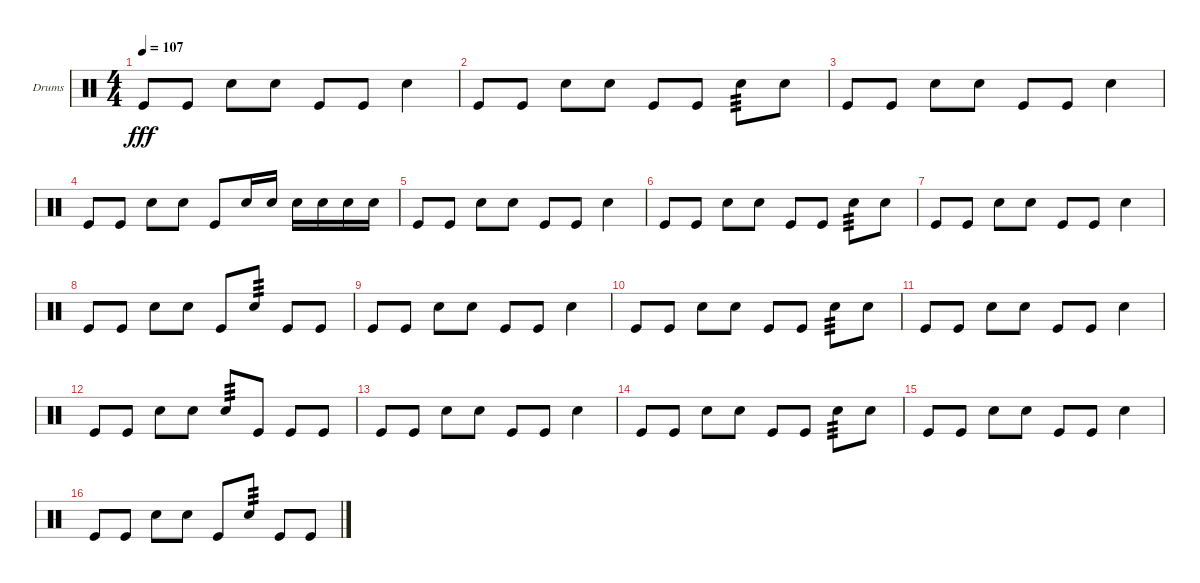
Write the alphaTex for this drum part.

\defaultSystemsLayout 4
\bracketExtendMode groupsimilarinstruments
\firstSystemTrackNameOrientation horizontal
\otherSystemsTrackNameOrientation horizontal
\track ("Helders" "Drums") {instrument percussion}
\staff {score}
\articulation defaults
\ts (4 4)
\tempo 107
\clef neutral
\ks c "Kick (hit)".8{dy fff} "Kick (hit)".8 "Snare (hit) 2".8 "Snare (hit) 2".8 "Kick (hit)".8 "Kick (hit)".8 "Snare (hit) 2".4
|
"Kick (hit)".8 "Kick (hit)".8 "Snare (hit) 2".8 "Snare (hit) 2".8 "Kick (hit)".8 "Kick (hit)".8 "Snare (hit) 2".8{tp 3} "Snare (hit) 2".8 |
"Kick (hit)".8 "Kick (hit)".8 "Snare (hit) 2".8 "Snare (hit) 2".8 "Kick (hit)".8 "Kick (hit)".8 "Snare (hit) 2".4 |
"Kick (hit)".8 "Kick (hit)".8 "Snare (hit) 2".8 "Snare (hit) 2".8 "Kick (hit)".8 "Snare (hit) 2".16 "Snare (hit) 2".16 "Snare (hit) 2".16 "Snare (hit) 2".16 "Snare (hit) 2".16 "Snare (hit) 2".16 |
"Kick (hit)".8 "Kick (hit)".8 "Snare (hit) 2".8 "Snare (hit) 2".8 "Kick (hit)".8 "Kick (hit)".8 "Snare (hit) 2".4 |
"Kick (hit)".8 "Kick (hit)".8 "Snare (hit) 2".8 "Snare (hit) 2".8 "Kick (hit)".8 "Kick (hit)".8 "Snare (hit) 2".8{tp 3} "Snare (hit) 2".8 |
"Kick (hit)".8 "Kick (hit)".8 "Snare (hit) 2".8 "Snare (hit) 2".8 "Kick (hit)".8 "Kick (hit)".8 "Snare (hit) 2".4 |
"Kick (hit)".8 "Kick (hit)".8 "Snare (hit) 2".8 "Snare (hit) 2".8 "Kick (hit)".8 "Snare (hit) 2".8{tp 3} "Kick (hit)".8 "Kick (hit)".8 |
"Kick (hit)".8 "Kick (hit)".8 "Snare (hit) 2".8 "Snare (hit) 2".8 "Kick (hit)".8 "Kick (hit)".8 "Snare (hit) 2".4 |
"Kick (hit)".8 "Kick (hit)".8 "Snare (hit) 2".8 "Snare (hit) 2".8 "Kick (hit)".8 "Kick (hit)".8 "Snare (hit) 2".8{tp 3} "Snare (hit) 2".8 |
"Kick (hit)".8 "Kick (hit)".8 "Snare (hit) 2".8 "Snare (hit) 2".8 "Kick (hit)".8 "Kick (hit)".8 "Snare (hit) 2".4 |
"Kick (hit)".8 "Kick (hit)".8 "Snare (hit) 2".8 "Snare (hit) 2".8 "Snare (hit) 2".8{tp 3} "Kick (hit)".8 "Kick (hit)".8 "Kick (hit)".8 |
"Kick (hit)".8 "Kick (hit)".8 "Snare (hit) 2".8 "Snare (hit) 2".8 "Kick (hit)".8 "Kick (hit)".8 "Snare (hit) 2".4 |
"Kick (hit)".8 "Kick (hit)".8 "Snare (hit) 2".8 "Snare (hit) 2".8 "Kick (hit)".8 "Kick (hit)".8 "Snare (hit) 2".8{tp 3} "Snare (hit) 2".8 |
"Kick (hit)".8 "Kick (hit)".8 "Snare (hit) 2".8 "Snare (hit) 2".8 "Kick (hit)".8 "Kick (hit)".8 "Snare (hit) 2".4 |
"Kick (hit)".8 "Kick (hit)".8 "Snare (hit) 2".8 "Snare (hit) 2".8 "Kick (hit)".8 "Snare (hit) 2".8{tp 3} "Kick (hit)".8 "Kick (hit)".8
